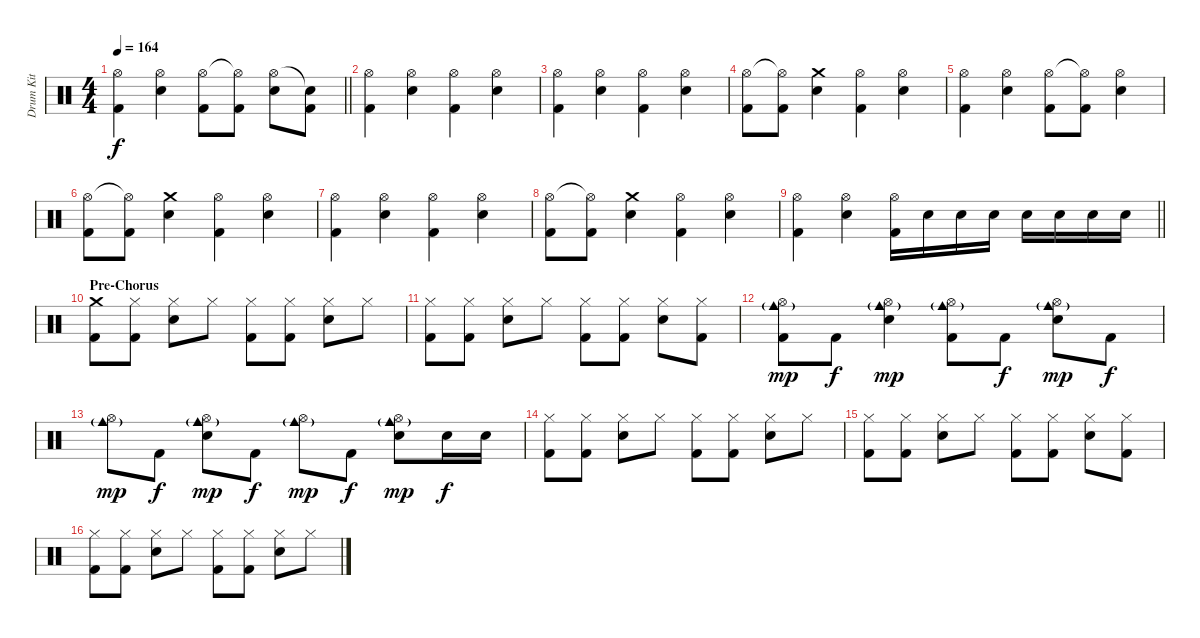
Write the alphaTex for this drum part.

\track ("Drum Kit" "Drum Kit") {instrument percussion}
\staff {score}
\articulation defaults
\ts (4 4)
\tempo 164
\clef neutral
\barLineRight lightlight
\ks c
("Hi-Hat (open)" "Kick (hit) 2").4{dy f} ("Hi-Hat (open)" "Electric Snare (hit)").4 ("Hi-Hat (open)" "Kick (hit) 2").8 ("Hi-Hat (open)"{t} "Kick (hit) 2").8 ("Hi-Hat (open)" "Electric Snare (hit)").8 ("Snare (hit)"{t} "Kick (hit) 2").8 |
("Hi-Hat (open)" "Kick (hit) 2").4 ("Hi-Hat (open)" "Electric Snare (hit)").4 ("Hi-Hat (open)" "Kick (hit) 2").4 ("Hi-Hat (open)" "Electric Snare (hit)").4 |
("Hi-Hat (open)" "Kick (hit) 2").4 ("Hi-Hat (open)" "Electric Snare (hit)").4 ("Hi-Hat (open)" "Kick (hit) 2").4 ("Hi-Hat (open)" "Electric Snare (hit)").4 |
("Hi-Hat (open)" "Kick (hit) 2").8 ("Hi-Hat (open)"{t} "Kick (hit) 2").8 ("Crash medium (hit)" "Electric Snare (hit)").4 ("Hi-Hat (open)" "Kick (hit) 2").4 ("Hi-Hat (open)" "Electric Snare (hit)").4 |
("Hi-Hat (open)" "Kick (hit) 2").4 ("Hi-Hat (open)" "Electric Snare (hit)").4 ("Hi-Hat (open)" "Kick (hit) 2").8 ("Hi-Hat (open)"{t} "Kick (hit) 2").8 ("Hi-Hat (open)" "Electric Snare (hit)").4 |
("Hi-Hat (open)" "Kick (hit) 2").8 ("Hi-Hat (open)"{t} "Kick (hit) 2").8 ("Crash medium (hit)" "Electric Snare (hit)").4 ("Hi-Hat (open)" "Kick (hit) 2").4 ("Hi-Hat (open)" "Electric Snare (hit)").4 |
("Hi-Hat (open)" "Kick (hit) 2").4 ("Hi-Hat (open)" "Electric Snare (hit)").4 ("Hi-Hat (open)" "Kick (hit) 2").4 ("Hi-Hat (open)" "Electric Snare (hit)").4 |
("Hi-Hat (open)" "Kick (hit) 2").8 ("Hi-Hat (open)"{t} "Kick (hit) 2").8 ("Crash medium (hit)" "Electric Snare (hit)").4 ("Hi-Hat (open)" "Kick (hit) 2").4 ("Hi-Hat (open)" "Electric Snare (hit)").4 |
\barLineRight lightlight
("Hi-Hat (open)" "Kick (hit) 2").4 ("Hi-Hat (open)" "Electric Snare (hit)").4 ("Hi-Hat (open)" "Kick (hit) 2").16 "Electric Snare (hit)".16 "Electric Snare (hit)".16 "Electric Snare (hit)".16 "Electric Snare (hit)".16 "Electric Snare (hit)".16 "Electric Snare (hit)".16 "Electric Snare (hit)".16 |
\section ("" "Pre-Chorus")
("Crash medium (hit)" "Kick (hit) 2").8 ("Hi-Hat (closed)" "Kick (hit) 2").8 ("Hi-Hat (closed)" "Electric Snare (hit)").8 "Hi-Hat (closed)".8 ("Hi-Hat (closed)" "Kick (hit) 2").8 ("Hi-Hat (closed)" "Kick (hit) 2").8 ("Hi-Hat (closed)" "Electric Snare (hit)").8 "Hi-Hat (closed)".8 |
("Hi-Hat (closed)" "Kick (hit) 2").8 ("Hi-Hat (closed)" "Kick (hit) 2").8 ("Hi-Hat (closed)" "Electric Snare (hit)").8 "Hi-Hat (closed)".8 ("Hi-Hat (closed)" "Kick (hit) 2").8 ("Hi-Hat (closed)" "Kick (hit) 2").8 ("Hi-Hat (closed)" "Electric Snare (hit)").8 ("Hi-Hat (closed)" "Kick (hit) 2").8 |
("Hi-Hat (open)" "Cowbell medium (hit)"{g} "Kick (hit) 2").8{dy mp} "Kick (hit) 2".8{dy f} ("Hi-Hat (open)" "Cowbell medium (hit)"{g} "Electric Snare (hit)").4{dy mp} ("Hi-Hat (open)" "Cowbell medium (hit)"{g} "Kick (hit) 2").8 "Kick (hit) 2".8{dy f} ("Hi-Hat (open)" "Cowbell medium (hit)"{g} "Electric Snare (hit)").8{dy mp} "Kick (hit) 2".8{dy f} |
("Hi-Hat (open)" "Cowbell medium (hit)"{g}).8{dy mp} "Kick (hit) 2".8{dy f} ("Hi-Hat (open)" "Cowbell medium (hit)"{g} "Electric Snare (hit)").8{dy mp} "Kick (hit) 2".8{dy f} ("Hi-Hat (open)" "Cowbell medium (hit)"{g}).8{dy mp} "Kick (hit) 2".8{dy f} ("Hi-Hat (open)" "Cowbell medium (hit)"{g} "Electric Snare (hit)").8{dy mp} "Electric Snare (hit)".16{dy f} "Electric Snare (hit)".16 |
("Hi-Hat (closed)" "Kick (hit) 2").8 ("Hi-Hat (closed)" "Kick (hit) 2").8 ("Hi-Hat (closed)" "Electric Snare (hit)").8 "Hi-Hat (closed)".8 ("Hi-Hat (closed)" "Kick (hit) 2").8 ("Hi-Hat (closed)" "Kick (hit) 2").8 ("Hi-Hat (closed)" "Electric Snare (hit)").8 "Hi-Hat (closed)".8 |
("Hi-Hat (closed)" "Kick (hit) 2").8 ("Hi-Hat (closed)" "Kick (hit) 2").8 ("Hi-Hat (closed)" "Electric Snare (hit)").8 "Hi-Hat (closed)".8 ("Hi-Hat (closed)" "Kick (hit) 2").8 ("Hi-Hat (closed)" "Kick (hit) 2").8 ("Hi-Hat (closed)" "Electric Snare (hit)").8 ("Hi-Hat (closed)" "Kick (hit) 2").8 |
("Hi-Hat (closed)" "Kick (hit) 2").8 ("Hi-Hat (closed)" "Kick (hit) 2").8 ("Hi-Hat (closed)" "Electric Snare (hit)").8 "Hi-Hat (closed)".8 ("Hi-Hat (closed)" "Kick (hit) 2").8 ("Hi-Hat (closed)" "Kick (hit) 2").8 ("Hi-Hat (closed)" "Electric Snare (hit)").8 "Hi-Hat (closed)".8
